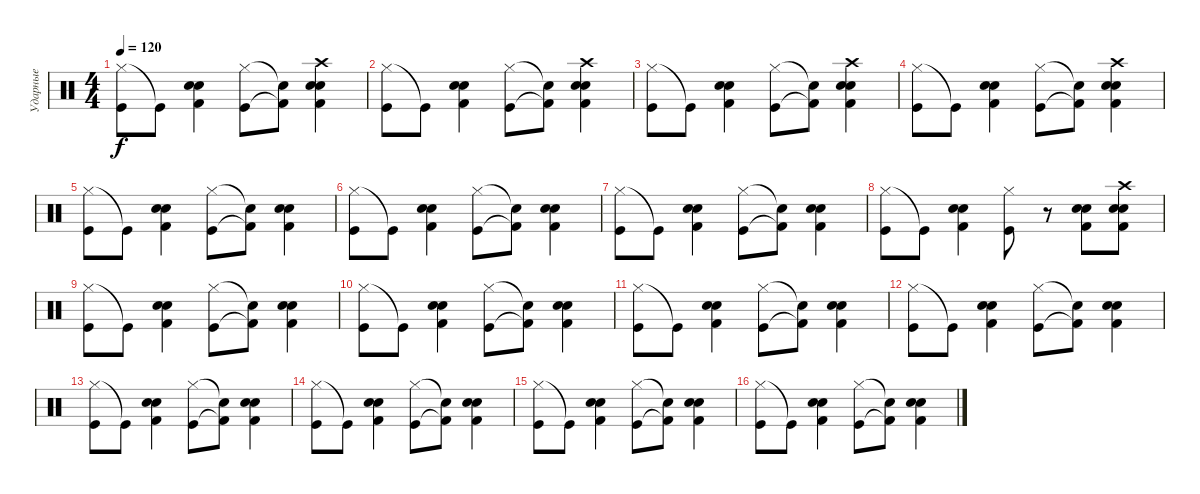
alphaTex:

\track ("Ударные" "Ударные") {instrument percussion}
\staff {score}
\articulation defaults
\ts (4 4)
\tempo 120
\clef neutral
\ks c
("Hi-Hat (closed)" "Kick (hit)").8{dy f} "Kick (hit)"{t}.8 ("Snare (hit) 2" "Kick (hit) 2" "Electric Snare (hit)").4 ("Hi-Hat (closed)" "Kick (hit)").8 ("Snare (hit) 2"{t} "Kick (hit) 2"{t}).8 ("Snare (hit) 2" "Kick (hit) 2" "Electric Snare (hit)" "Crash high (hit)").4 |
("Hi-Hat (closed)" "Kick (hit)").8 "Kick (hit)"{t}.8 ("Snare (hit) 2" "Kick (hit) 2" "Electric Snare (hit)").4 ("Hi-Hat (closed)" "Kick (hit)").8 ("Snare (hit) 2"{t} "Kick (hit) 2"{t}).8 ("Snare (hit) 2" "Kick (hit) 2" "Electric Snare (hit)" "Crash high (hit)").4 |
("Hi-Hat (closed)" "Kick (hit)").8 "Kick (hit)"{t}.8 ("Snare (hit) 2" "Kick (hit) 2" "Electric Snare (hit)").4 ("Hi-Hat (closed)" "Kick (hit)").8 ("Snare (hit) 2"{t} "Kick (hit) 2"{t}).8 ("Snare (hit) 2" "Kick (hit) 2" "Electric Snare (hit)" "Crash high (hit)").4 |
("Hi-Hat (closed)" "Kick (hit)").8 "Kick (hit)"{t}.8 ("Snare (hit) 2" "Kick (hit) 2" "Electric Snare (hit)").4 ("Hi-Hat (closed)" "Kick (hit)").8 ("Snare (hit) 2"{t} "Kick (hit) 2"{t}).8 ("Snare (hit) 2" "Kick (hit) 2" "Electric Snare (hit)" "Crash high (hit)").4 |
("Hi-Hat (closed)" "Kick (hit)").8 "Kick (hit)"{t}.8 ("Snare (hit) 2" "Kick (hit) 2" "Electric Snare (hit)").4 ("Hi-Hat (closed)" "Kick (hit)").8 ("Snare (hit) 2"{t} "Kick (hit) 2"{t}).8 ("Snare (hit) 2" "Kick (hit) 2" "Electric Snare (hit)").4 |
("Hi-Hat (closed)" "Kick (hit)").8 "Kick (hit)"{t}.8 ("Snare (hit) 2" "Kick (hit) 2" "Electric Snare (hit)").4 ("Hi-Hat (closed)" "Kick (hit)").8 ("Snare (hit) 2"{t} "Kick (hit) 2"{t}).8 ("Snare (hit) 2" "Kick (hit) 2" "Electric Snare (hit)").4 |
("Hi-Hat (closed)" "Kick (hit)").8 "Kick (hit)"{t}.8 ("Snare (hit) 2" "Kick (hit) 2" "Electric Snare (hit)").4 ("Hi-Hat (closed)" "Kick (hit)").8 ("Snare (hit) 2"{t} "Kick (hit) 2"{t}).8 ("Snare (hit) 2" "Kick (hit) 2" "Electric Snare (hit)").4 |
("Hi-Hat (closed)" "Kick (hit)").8 "Kick (hit)"{t}.8 ("Snare (hit) 2" "Kick (hit) 2" "Electric Snare (hit)").4 ("Hi-Hat (closed)" "Kick (hit)").8 r.8 ("Snare (hit) 2" "Kick (hit) 2" "Electric Snare (hit)").8 ("Snare (hit) 2" "Kick (hit) 2" "Electric Snare (hit)" "Crash high (hit)").8 |
("Hi-Hat (closed)" "Kick (hit)").8 "Kick (hit)"{t}.8 ("Snare (hit) 2" "Kick (hit) 2" "Electric Snare (hit)").4 ("Hi-Hat (closed)" "Kick (hit)").8 ("Snare (hit) 2"{t} "Kick (hit) 2"{t}).8 ("Snare (hit) 2" "Kick (hit) 2" "Electric Snare (hit)").4 |
("Hi-Hat (closed)" "Kick (hit)").8 "Kick (hit)"{t}.8 ("Snare (hit) 2" "Kick (hit) 2" "Electric Snare (hit)").4 ("Hi-Hat (closed)" "Kick (hit)").8 ("Snare (hit) 2"{t} "Kick (hit) 2"{t}).8 ("Snare (hit) 2" "Kick (hit) 2" "Electric Snare (hit)").4 |
("Hi-Hat (closed)" "Kick (hit)").8 "Kick (hit)"{t}.8 ("Snare (hit) 2" "Kick (hit) 2" "Electric Snare (hit)").4 ("Hi-Hat (closed)" "Kick (hit)").8 ("Snare (hit) 2"{t} "Kick (hit) 2"{t}).8 ("Snare (hit) 2" "Kick (hit) 2" "Electric Snare (hit)").4 |
("Hi-Hat (closed)" "Kick (hit)").8 "Kick (hit)"{t}.8 ("Snare (hit) 2" "Kick (hit) 2" "Electric Snare (hit)").4 ("Hi-Hat (closed)" "Kick (hit)").8 ("Snare (hit) 2"{t} "Kick (hit) 2"{t}).8 ("Snare (hit) 2" "Kick (hit) 2" "Electric Snare (hit)").4 |
("Hi-Hat (closed)" "Kick (hit)").8 "Kick (hit)"{t}.8 ("Snare (hit) 2" "Kick (hit) 2" "Electric Snare (hit)").4 ("Hi-Hat (closed)" "Kick (hit)").8 ("Snare (hit) 2"{t} "Kick (hit) 2"{t}).8 ("Snare (hit) 2" "Kick (hit) 2" "Electric Snare (hit)").4 |
("Hi-Hat (closed)" "Kick (hit)").8 "Kick (hit)"{t}.8 ("Snare (hit) 2" "Kick (hit) 2" "Electric Snare (hit)").4 ("Hi-Hat (closed)" "Kick (hit)").8 ("Snare (hit) 2"{t} "Kick (hit) 2"{t}).8 ("Snare (hit) 2" "Kick (hit) 2" "Electric Snare (hit)").4 |
("Hi-Hat (closed)" "Kick (hit)").8 "Kick (hit)"{t}.8 ("Snare (hit) 2" "Kick (hit) 2" "Electric Snare (hit)").4 ("Hi-Hat (closed)" "Kick (hit)").8 ("Snare (hit) 2"{t} "Kick (hit) 2"{t}).8 ("Snare (hit) 2" "Kick (hit) 2" "Electric Snare (hit)").4 |
("Hi-Hat (closed)" "Kick (hit)").8 "Kick (hit)"{t}.8 ("Snare (hit) 2" "Kick (hit) 2" "Electric Snare (hit)").4 ("Hi-Hat (closed)" "Kick (hit)").8 ("Snare (hit) 2"{t} "Kick (hit) 2"{t}).8 ("Snare (hit) 2" "Kick (hit) 2" "Electric Snare (hit)").4
